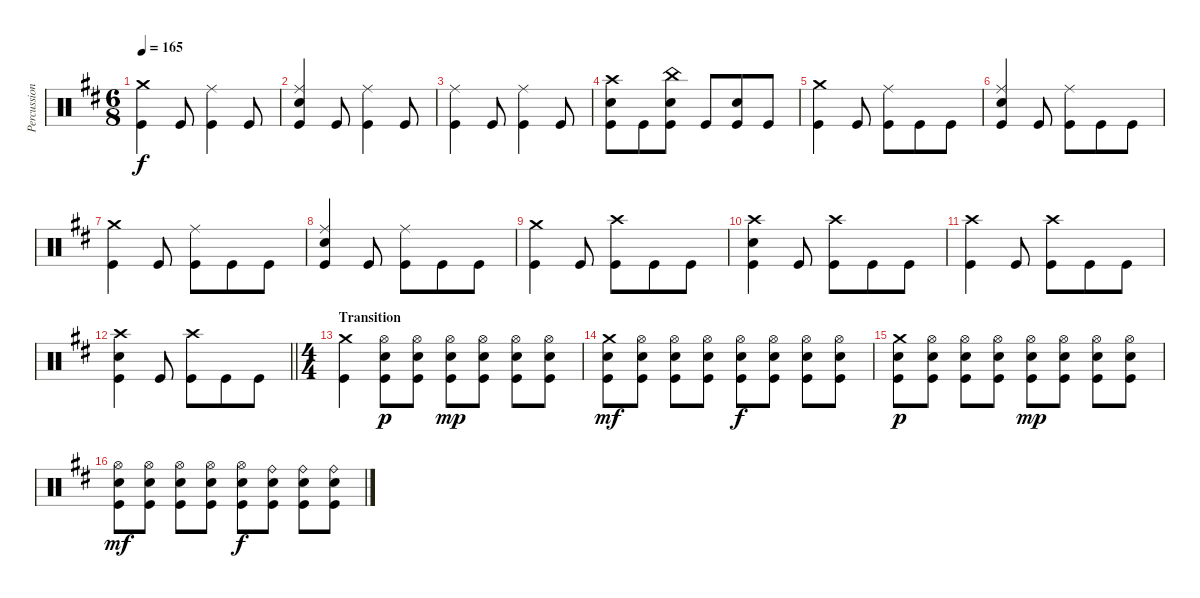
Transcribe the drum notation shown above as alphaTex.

\track ("Percussion" "Percussion") {instrument percussion}
\staff {score}
\articulation defaults
\ts (6 8)
\tempo 165
\clef neutral
\ks d
("Crash medium (hit)" "Kick (hit)").4{dy f} "Kick (hit)".8 ("Ride (middle)" "Kick (hit)").4 "Kick (hit)".8 |
("Ride (middle)" "Electric Snare (hit)" "Kick (hit)").4 "Kick (hit)".8 ("Ride (middle)" "Kick (hit)").4 "Kick (hit)".8 |
("Ride (middle)" "Kick (hit)").4 "Kick (hit)".8 ("Ride (middle)" "Kick (hit)").4 "Kick (hit)".8 |
("Crash high (hit)" "Electric Snare (hit)" "Kick (hit)").8 "Kick (hit)".8 ("China (hit)" "Electric Snare (hit)" "Kick (hit)").8 "Kick (hit)".8 ("Electric Snare (hit)" "Kick (hit)").8 "Kick (hit)".8 |
("Crash medium (hit)" "Kick (hit)").4 "Kick (hit)".8 ("Ride (middle)" "Kick (hit)").8 "Kick (hit)".8 "Kick (hit)".8 |
("Ride (middle)" "Electric Snare (hit)" "Kick (hit)").4 "Kick (hit)".8 ("Ride (middle)" "Kick (hit)").8 "Kick (hit)".8 "Kick (hit)".8 |
("Crash medium (hit)" "Kick (hit)").4 "Kick (hit)".8 ("Ride (middle)" "Kick (hit)").8 "Kick (hit)".8 "Kick (hit)".8 |
("Ride (middle)" "Electric Snare (hit)" "Kick (hit)").4 "Kick (hit)".8 ("Ride (middle)" "Kick (hit)").8 "Kick (hit)".8 "Kick (hit)".8 |
("Crash medium (hit)" "Kick (hit)").4 "Kick (hit)".8 ("Crash high (hit)" "Kick (hit)").8 "Kick (hit)".8 "Kick (hit)".8 |
("Crash high (hit)" "Electric Snare (hit)" "Kick (hit)").4 "Kick (hit)".8 ("Crash high (hit)" "Kick (hit)").8 "Kick (hit)".8 "Kick (hit)".8 |
("Crash high (hit)" "Kick (hit)").4 "Kick (hit)".8 ("Crash high (hit)" "Kick (hit)").8 "Kick (hit)".8 "Kick (hit)".8 |
\barLineRight lightlight
("Crash high (hit)" "Electric Snare (hit)" "Kick (hit)").4 "Kick (hit)".8 ("Crash high (hit)" "Kick (hit)").8 "Kick (hit)".8 "Kick (hit)".8 |
\ts (4 4)
\section ("" "Transition")
("Crash medium (hit)" "Kick (hit)").4 ("Hi-Hat (open)" "Electric Snare (hit)" "Kick (hit)").8{dy p} ("Hi-Hat (open)" "Electric Snare (hit)" "Kick (hit)").8 ("Hi-Hat (open)" "Electric Snare (hit)" "Kick (hit)").8{dy mp} ("Hi-Hat (open)" "Electric Snare (hit)" "Kick (hit)").8 ("Hi-Hat (open)" "Electric Snare (hit)" "Kick (hit)").8 ("Hi-Hat (open)" "Electric Snare (hit)" "Kick (hit)").8 |
("Crash medium (hit)" "Electric Snare (hit)" "Kick (hit)").8{dy mf} ("Hi-Hat (open)" "Electric Snare (hit)" "Kick (hit)").8 ("Hi-Hat (open)" "Electric Snare (hit)" "Kick (hit)").8 ("Hi-Hat (open)" "Electric Snare (hit)" "Kick (hit)").8 ("Hi-Hat (open)" "Electric Snare (hit)" "Kick (hit)").8{dy f} ("Hi-Hat (open)" "Electric Snare (hit)" "Kick (hit)").8 ("Hi-Hat (open)" "Electric Snare (hit)" "Kick (hit)").8 ("Hi-Hat (open)" "Electric Snare (hit)" "Kick (hit)").8 |
("Crash medium (hit)" "Electric Snare (hit)" "Kick (hit)").8{dy p} ("Hi-Hat (open)" "Electric Snare (hit)" "Kick (hit)").8 ("Hi-Hat (open)" "Electric Snare (hit)" "Kick (hit)").8 ("Hi-Hat (open)" "Electric Snare (hit)" "Kick (hit)").8 ("Hi-Hat (open)" "Electric Snare (hit)" "Kick (hit)").8{dy mp} ("Hi-Hat (open)" "Electric Snare (hit)" "Kick (hit)").8 ("Hi-Hat (open)" "Electric Snare (hit)" "Kick (hit)").8 ("Hi-Hat (open)" "Electric Snare (hit)" "Kick (hit)").8 |
("Hi-Hat (open)" "Electric Snare (hit)" "Kick (hit)").8{dy mf} ("Hi-Hat (open)" "Electric Snare (hit)" "Kick (hit)").8 ("Hi-Hat (open)" "Electric Snare (hit)" "Kick (hit)").8 ("Hi-Hat (open)" "Electric Snare (hit)" "Kick (hit)").8 ("Hi-Hat (open)" "Electric Snare (hit)" "Kick (hit)").8{dy f} ("Ride (bell)" "Electric Snare (hit)" "Kick (hit)").8 ("Ride (bell)" "Electric Snare (hit)" "Kick (hit)").8 ("Ride (bell)" "Electric Snare (hit)" "Kick (hit)").8
